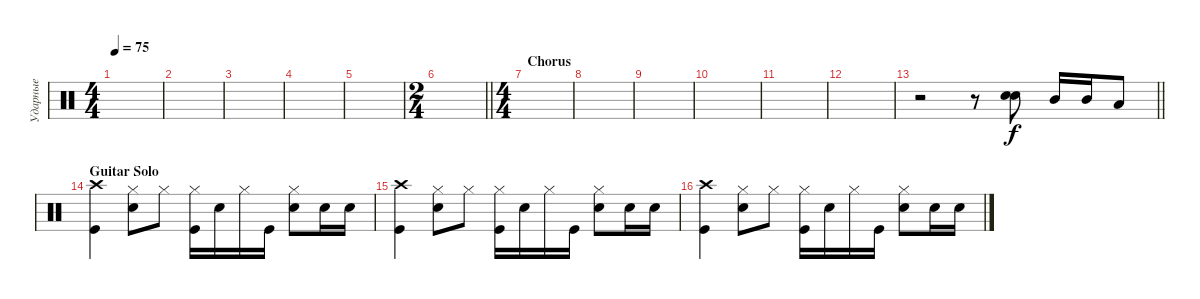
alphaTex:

\track ("Ударные" "Ударные") {instrument percussion}
\staff {score}
\articulation defaults
\ts (4 4)
\tempo 75
\clef neutral
\ks c
|
|
|
|
|
\ts (2 4)
\barLineRight lightlight
|
\ts (4 4)
\section ("" "Chorus")
|
|
|
|
|
|
\barLineRight lightlight
r.2 r.8 ("Snare (hit) 2" "Snare (hit) 2").8{bd 240} "Mid Tom (hit)".16 "Mid Tom (hit)".16 "Low Tom (hit)".8 |
\section ("" "Guitar Solo")
("Crash high (hit)" "Kick (hit)").4 ("Snare (hit) 2" "Hi-Hat (closed)").8 "Hi-Hat (closed)".8 ("Kick (hit)" "Hi-Hat (closed)").16 "Snare (hit) 2".16 "Hi-Hat (closed)".16 "Kick (hit)".16 ("Snare (hit) 2" "Hi-Hat (closed)").8 "Snare (hit) 2".16 "Snare (hit) 2".16 |
("Crash high (hit)" "Kick (hit)").4 ("Snare (hit) 2" "Hi-Hat (closed)").8 "Hi-Hat (closed)".8 ("Kick (hit)" "Hi-Hat (closed)").16 "Snare (hit) 2".16 "Hi-Hat (closed)".16 "Kick (hit)".16 ("Snare (hit) 2" "Hi-Hat (closed)").8 "Snare (hit) 2".16 "Snare (hit) 2".16 |
("Crash high (hit)" "Kick (hit)").4 ("Snare (hit) 2" "Hi-Hat (closed)").8 "Hi-Hat (closed)".8 ("Kick (hit)" "Hi-Hat (closed)").16 "Snare (hit) 2".16 "Hi-Hat (closed)".16 "Kick (hit)".16 ("Snare (hit) 2" "Hi-Hat (closed)").8 "Snare (hit) 2".16 "Snare (hit) 2".16
